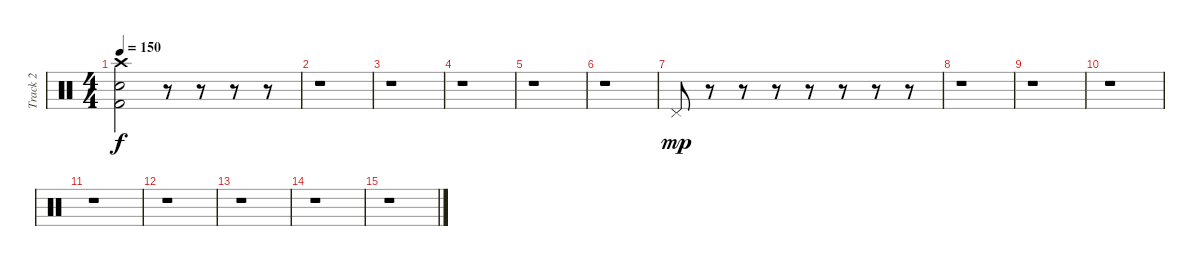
\track ("Track 2" "Track 2") {instrument percussion}
\staff {score}
\articulation defaults
\ts (4 4)
\tempo 150
\clef neutral
\ks c
("Crash high (hit)" "Electric Snare (hit)" "Kick (hit) 2").2{dy f} r.8 r.8 r.8 r.8 |
r.1 |
r.1 |
r.1 |
r.1 |
r.1 |
"Pedal Hi-Hat (hit)".8{dy mp} r.8 r.8 r.8 r.8 r.8 r.8 r.8 |
r.1 |
r.1 |
r.1 |
r.1 |
r.1 |
r.1 |
r.1 |
r.1
